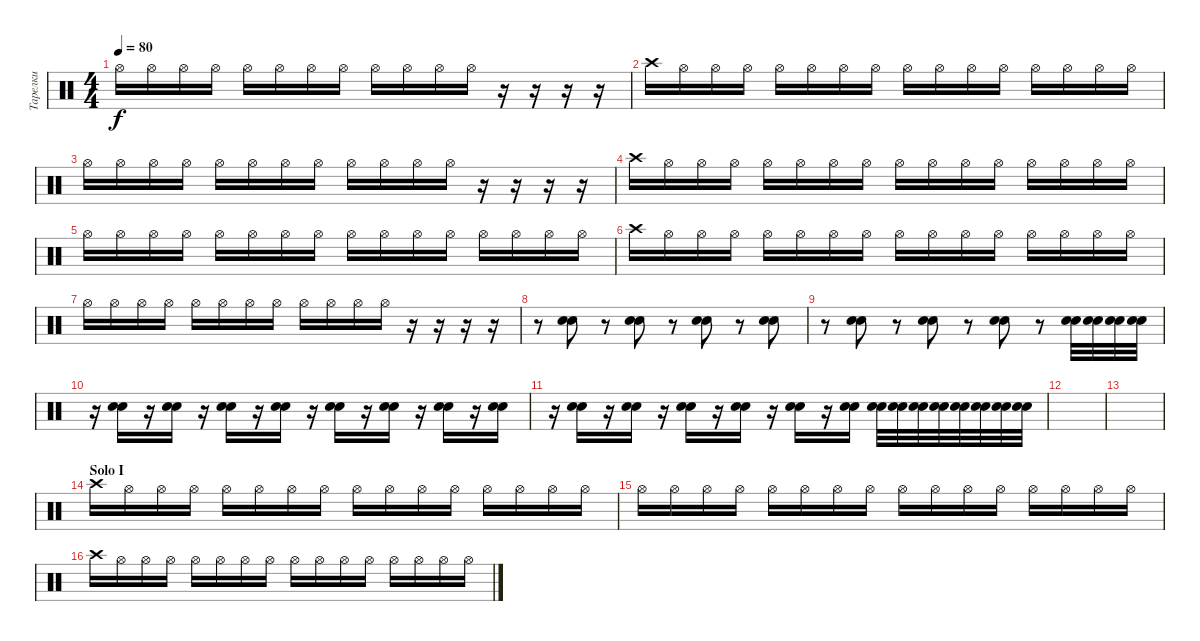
\track ("Тарелки" "Тарелки") {instrument percussion}
\staff {score}
\articulation defaults
\ts (4 4)
\tempo 80
\clef neutral
\ks c "Hi-Hat (open)".16{dy f} "Hi-Hat (open)".16 "Hi-Hat (open)".16 "Hi-Hat (open)".16 "Hi-Hat (open)".16 "Hi-Hat (open)".16 "Hi-Hat (open)".16 "Hi-Hat (open)".16 "Hi-Hat (open)".16 "Hi-Hat (open)".16 "Hi-Hat (open)".16 "Hi-Hat (open)".16
r.16 r.16 r.16 r.16 |
"Crash high (hit)".16 "Hi-Hat (open)".16 "Hi-Hat (open)".16 "Hi-Hat (open)".16 "Hi-Hat (open)".16 "Hi-Hat (open)".16 "Hi-Hat (open)".16 "Hi-Hat (open)".16 "Hi-Hat (open)".16 "Hi-Hat (open)".16 "Hi-Hat (open)".16 "Hi-Hat (open)".16 "Hi-Hat (open)".16 "Hi-Hat (open)".16 "Hi-Hat (open)".16 "Hi-Hat (open)".16 |
"Hi-Hat (open)".16 "Hi-Hat (open)".16 "Hi-Hat (open)".16 "Hi-Hat (open)".16 "Hi-Hat (open)".16 "Hi-Hat (open)".16 "Hi-Hat (open)".16 "Hi-Hat (open)".16 "Hi-Hat (open)".16 "Hi-Hat (open)".16 "Hi-Hat (open)".16 "Hi-Hat (open)".16 r.16 r.16 r.16 r.16 |
"Crash high (hit)".16 "Hi-Hat (open)".16 "Hi-Hat (open)".16 "Hi-Hat (open)".16 "Hi-Hat (open)".16 "Hi-Hat (open)".16 "Hi-Hat (open)".16 "Hi-Hat (open)".16 "Hi-Hat (open)".16 "Hi-Hat (open)".16 "Hi-Hat (open)".16 "Hi-Hat (open)".16 "Hi-Hat (open)".16 "Hi-Hat (open)".16 "Hi-Hat (open)".16 "Hi-Hat (open)".16 |
"Hi-Hat (open)".16 "Hi-Hat (open)".16 "Hi-Hat (open)".16 "Hi-Hat (open)".16 "Hi-Hat (open)".16 "Hi-Hat (open)".16 "Hi-Hat (open)".16 "Hi-Hat (open)".16 "Hi-Hat (open)".16 "Hi-Hat (open)".16 "Hi-Hat (open)".16 "Hi-Hat (open)".16 "Hi-Hat (open)".16 "Hi-Hat (open)".16 "Hi-Hat (open)".16 "Hi-Hat (open)".16 |
"Crash high (hit)".16 "Hi-Hat (open)".16 "Hi-Hat (open)".16 "Hi-Hat (open)".16 "Hi-Hat (open)".16 "Hi-Hat (open)".16 "Hi-Hat (open)".16 "Hi-Hat (open)".16 "Hi-Hat (open)".16 "Hi-Hat (open)".16 "Hi-Hat (open)".16 "Hi-Hat (open)".16 "Hi-Hat (open)".16 "Hi-Hat (open)".16 "Hi-Hat (open)".16 "Hi-Hat (open)".16 |
"Hi-Hat (open)".16 "Hi-Hat (open)".16 "Hi-Hat (open)".16 "Hi-Hat (open)".16 "Hi-Hat (open)".16 "Hi-Hat (open)".16 "Hi-Hat (open)".16 "Hi-Hat (open)".16 "Hi-Hat (open)".16 "Hi-Hat (open)".16 "Hi-Hat (open)".16 "Hi-Hat (open)".16 r.16 r.16 r.16 r.16 |
r.8 ("Snare (hit) 2" "Snare (hit) 2").8 r.8 ("Snare (hit) 2" "Snare (hit) 2").8 r.8 ("Snare (hit) 2" "Snare (hit) 2").8 r.8 ("Snare (hit) 2" "Snare (hit) 2").8 |
r.8 ("Snare (hit) 2" "Snare (hit) 2").8 r.8 ("Snare (hit) 2" "Snare (hit) 2").8 r.8 ("Snare (hit) 2" "Snare (hit) 2").8 r.8 ("Snare (hit) 2" "Snare (hit) 2").32 ("Snare (hit) 2" "Snare (hit) 2").32 ("Snare (hit) 2" "Snare (hit) 2").32 ("Snare (hit) 2" "Snare (hit) 2").32 |
r.16 ("Snare (hit) 2" "Snare (hit) 2").16 r.16 ("Snare (hit) 2" "Snare (hit) 2").16 r.16 ("Snare (hit) 2" "Snare (hit) 2").16 r.16 ("Snare (hit) 2" "Snare (hit) 2").16 r.16 ("Snare (hit) 2" "Snare (hit) 2").16 r.16 ("Snare (hit) 2" "Snare (hit) 2").16 r.16 ("Snare (hit) 2" "Snare (hit) 2").16 r.16 ("Snare (hit) 2" "Snare (hit) 2").16 |
r.16 ("Snare (hit) 2" "Snare (hit) 2").16 r.16 ("Snare (hit) 2" "Snare (hit) 2").16 r.16 ("Snare (hit) 2" "Snare (hit) 2").16 r.16 ("Snare (hit) 2" "Snare (hit) 2").16 r.16 ("Snare (hit) 2" "Snare (hit) 2").16 r.16 ("Snare (hit) 2" "Snare (hit) 2").16 ("Snare (hit) 2" "Snare (hit) 2").32 ("Snare (hit) 2" "Snare (hit) 2").32 ("Snare (hit) 2" "Snare (hit) 2").32 ("Snare (hit) 2" "Snare (hit) 2").32 ("Snare (hit) 2" "Snare (hit) 2").32 ("Snare (hit) 2" "Snare (hit) 2").32 ("Snare (hit) 2" "Snare (hit) 2").32 ("Snare (hit) 2" "Snare (hit) 2").32 |
|
|
\section ("" "Solo I")
"Crash high (hit)".16 "Hi-Hat (open)".16 "Hi-Hat (open)".16 "Hi-Hat (open)".16 "Hi-Hat (open)".16 "Hi-Hat (open)".16 "Hi-Hat (open)".16 "Hi-Hat (open)".16 "Hi-Hat (open)".16 "Hi-Hat (open)".16 "Hi-Hat (open)".16 "Hi-Hat (open)".16 "Hi-Hat (open)".16 "Hi-Hat (open)".16 "Hi-Hat (open)".16 "Hi-Hat (open)".16 |
"Hi-Hat (open)".16 "Hi-Hat (open)".16 "Hi-Hat (open)".16 "Hi-Hat (open)".16 "Hi-Hat (open)".16 "Hi-Hat (open)".16 "Hi-Hat (open)".16 "Hi-Hat (open)".16 "Hi-Hat (open)".16 "Hi-Hat (open)".16 "Hi-Hat (open)".16 "Hi-Hat (open)".16 "Hi-Hat (open)".16 "Hi-Hat (open)".16 "Hi-Hat (open)".16 "Hi-Hat (open)".16 |
"Crash high (hit)".16 "Hi-Hat (open)".16 "Hi-Hat (open)".16 "Hi-Hat (open)".16 "Hi-Hat (open)".16 "Hi-Hat (open)".16 "Hi-Hat (open)".16 "Hi-Hat (open)".16 "Hi-Hat (open)".16 "Hi-Hat (open)".16 "Hi-Hat (open)".16 "Hi-Hat (open)".16 "Hi-Hat (open)".16 "Hi-Hat (open)".16 "Hi-Hat (open)".16 "Hi-Hat (open)".16
